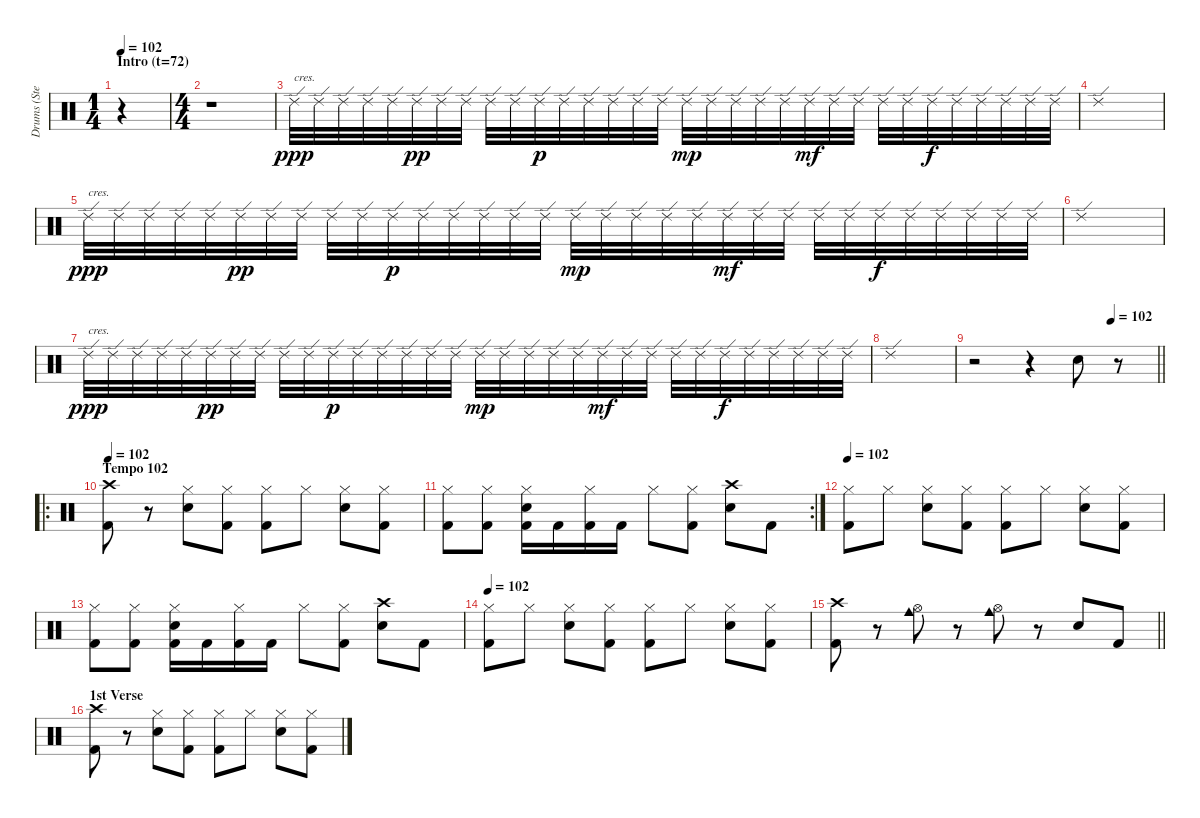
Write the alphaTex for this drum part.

\track ("Drums (Steven)" "Drums (Ste") {instrument percussion}
\staff {score}
\articulation defaults
\ts (1 4)
\section ("" "Intro (t=72)")
\tempo 102
\tempo 72
\tempo 102
\clef neutral
\ks c
r.4{dy ppp} |
\ts (4 4)
r.1 |
"Ride (edge) 2".32{txt "cres."} "Ride (edge) 2".32 "Ride (edge) 2".32 "Ride (edge) 2".32 "Ride (edge) 2".32 "Ride (edge) 2".32{dy pp} "Ride (edge) 2".32 "Ride (edge) 2".32 "Ride (edge) 2".32 "Ride (edge) 2".32 "Ride (edge) 2".32{dy p} "Ride (edge) 2".32 "Ride (edge) 2".32 "Ride (edge) 2".32 "Ride (edge) 2".32 "Ride (edge) 2".32 "Ride (edge) 2".32{dy mp} "Ride (edge) 2".32 "Ride (edge) 2".32 "Ride (edge) 2".32 "Ride (edge) 2".32 "Ride (edge) 2".32{dy mf} "Ride (edge) 2".32 "Ride (edge) 2".32 "Ride (edge) 2".32 "Ride (edge) 2".32 "Ride (edge) 2".32{dy f} "Ride (edge) 2".32 "Ride (edge) 2".32 "Ride (edge) 2".32 "Ride (edge) 2".32 "Ride (edge) 2".32 |
"Ride (edge) 2".1 |
"Ride (edge) 2".32{txt "cres." dy ppp} "Ride (edge) 2".32 "Ride (edge) 2".32 "Ride (edge) 2".32 "Ride (edge) 2".32 "Ride (edge) 2".32{dy pp} "Ride (edge) 2".32 "Ride (edge) 2".32 "Ride (edge) 2".32 "Ride (edge) 2".32 "Ride (edge) 2".32{dy p} "Ride (edge) 2".32 "Ride (edge) 2".32 "Ride (edge) 2".32 "Ride (edge) 2".32 "Ride (edge) 2".32 "Ride (edge) 2".32{dy mp} "Ride (edge) 2".32 "Ride (edge) 2".32 "Ride (edge) 2".32 "Ride (edge) 2".32 "Ride (edge) 2".32{dy mf} "Ride (edge) 2".32 "Ride (edge) 2".32 "Ride (edge) 2".32 "Ride (edge) 2".32 "Ride (edge) 2".32{dy f} "Ride (edge) 2".32 "Ride (edge) 2".32 "Ride (edge) 2".32 "Ride (edge) 2".32 "Ride (edge) 2".32 |
"Ride (edge) 2".1 |
"Ride (edge) 2".32{txt "cres." dy ppp} "Ride (edge) 2".32 "Ride (edge) 2".32 "Ride (edge) 2".32 "Ride (edge) 2".32 "Ride (edge) 2".32{dy pp} "Ride (edge) 2".32 "Ride (edge) 2".32 "Ride (edge) 2".32 "Ride (edge) 2".32 "Ride (edge) 2".32{dy p} "Ride (edge) 2".32 "Ride (edge) 2".32 "Ride (edge) 2".32 "Ride (edge) 2".32 "Ride (edge) 2".32 "Ride (edge) 2".32{dy mp} "Ride (edge) 2".32 "Ride (edge) 2".32 "Ride (edge) 2".32 "Ride (edge) 2".32 "Ride (edge) 2".32{dy mf} "Ride (edge) 2".32 "Ride (edge) 2".32 "Ride (edge) 2".32 "Ride (edge) 2".32 "Ride (edge) 2".32{dy f} "Ride (edge) 2".32 "Ride (edge) 2".32 "Ride (edge) 2".32 "Ride (edge) 2".32 "Ride (edge) 2".32 |
"Ride (edge) 2".1 |
\tempo (102 0.75)
\barLineRight lightlight
r.2 r.4 "Snare (hit) 2".8 r.8 |
\ro
\section ("" "Tempo 102")
\tempo 102
("Kick (hit) 2" "Crash high (hit)").8 r.8 ("Hi-Hat (closed)" "Snare (hit) 2").8 ("Hi-Hat (closed)" "Kick (hit) 2").8 ("Hi-Hat (closed)" "Kick (hit) 2").8 "Hi-Hat (closed)".8 ("Hi-Hat (closed)" "Snare (hit) 2").8 ("Hi-Hat (closed)" "Kick (hit) 2").8 |
\rc 2
("Hi-Hat (closed)" "Kick (hit) 2").8 ("Hi-Hat (closed)" "Kick (hit) 2").8 ("Hi-Hat (closed)" "Snare (hit) 2" "Kick (hit) 2").16 "Kick (hit) 2".16 ("Hi-Hat (closed)" "Kick (hit) 2").16 "Kick (hit) 2".16 "Hi-Hat (closed)".8 ("Hi-Hat (closed)" "Kick (hit) 2").8 ("Snare (hit) 2" "Crash high (hit)").8 "Kick (hit) 2".8 |
\tempo 102
("Hi-Hat (closed)" "Kick (hit) 2").8 "Hi-Hat (closed)".8 ("Hi-Hat (closed)" "Snare (hit) 2").8 ("Hi-Hat (closed)" "Kick (hit) 2").8 ("Hi-Hat (closed)" "Kick (hit) 2").8 "Hi-Hat (closed)".8 ("Hi-Hat (closed)" "Snare (hit) 2").8 ("Hi-Hat (closed)" "Kick (hit) 2").8 |
("Hi-Hat (closed)" "Kick (hit) 2").8 ("Hi-Hat (closed)" "Kick (hit) 2").8 ("Hi-Hat (closed)" "Snare (hit) 2" "Kick (hit) 2").16 "Kick (hit) 2".16 ("Hi-Hat (closed)" "Kick (hit) 2").16 "Kick (hit) 2".16 "Hi-Hat (closed)".8 ("Hi-Hat (closed)" "Kick (hit) 2").8 ("Snare (hit) 2" "Crash high (hit)").8 "Kick (hit) 2".8 |
\tempo 102
("Hi-Hat (closed)" "Kick (hit) 2").8 "Hi-Hat (closed)".8 ("Hi-Hat (closed)" "Snare (hit) 2").8 ("Hi-Hat (closed)" "Kick (hit) 2").8 ("Hi-Hat (closed)" "Kick (hit) 2").8 "Hi-Hat (closed)".8 ("Hi-Hat (closed)" "Snare (hit) 2").8 ("Hi-Hat (closed)" "Kick (hit) 2").8 |
\barLineRight lightlight
("Kick (hit) 2" "Crash high (hit)").8 r.8 ("Hi-Hat (open)" "Cowbell medium (hit)").8 r.8 ("Hi-Hat (open)" "Cowbell medium (hit)").8 r.8 "Electric Snare (hit)".8 "Kick (hit) 2".8 |
\section ("" "1st Verse")
("Kick (hit) 2" "Crash high (hit)").8 r.8 ("Hi-Hat (closed)" "Snare (hit) 2").8 ("Hi-Hat (closed)" "Kick (hit) 2").8 ("Hi-Hat (closed)" "Kick (hit) 2").8 "Hi-Hat (closed)".8 ("Hi-Hat (closed)" "Snare (hit) 2").8 ("Hi-Hat (closed)" "Kick (hit) 2").8
